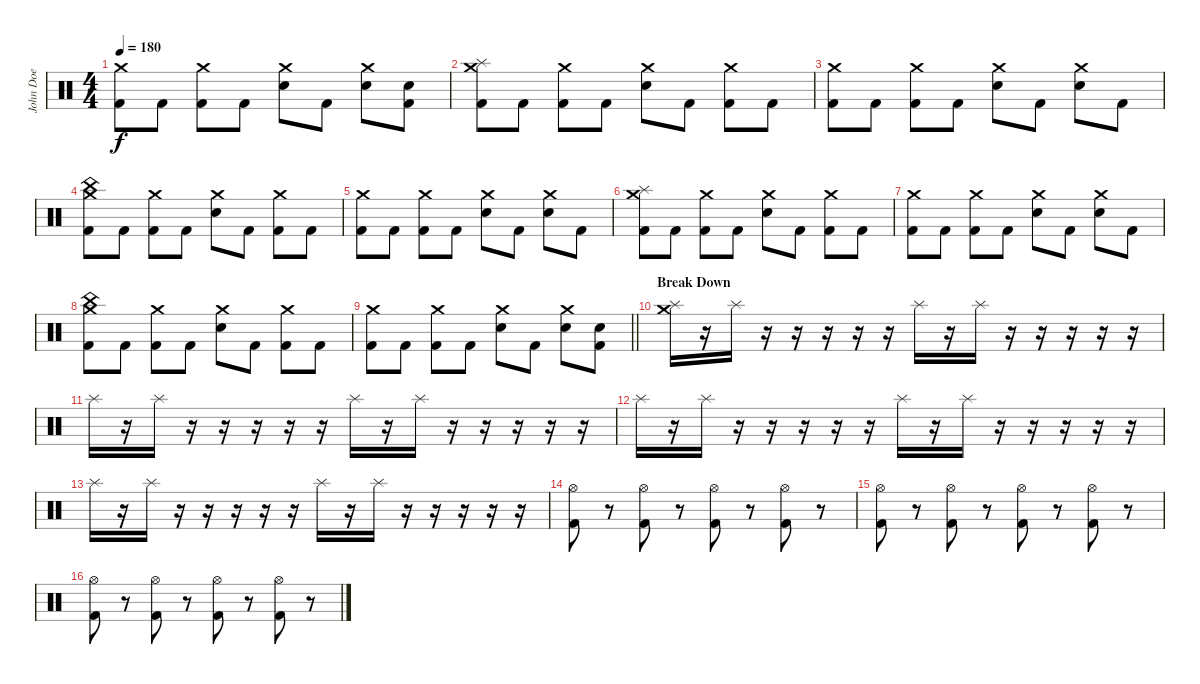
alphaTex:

\track ("John Doe" "John Doe") {instrument percussion}
\staff {score}
\articulation defaults
\ts (4 4)
\tempo 180
\clef neutral
\ks c
("Crash medium (hit)" "Kick (hit) 2").8{dy f} "Kick (hit) 2".8 ("Crash medium (hit)" "Kick (hit) 2").8 "Kick (hit) 2".8 ("Crash medium (hit)" "Electric Snare (hit)").8 "Kick (hit) 2".8 ("Crash medium (hit)" "Electric Snare (hit)").8 ("Electric Snare (hit)" "Kick (hit) 2").8 |
("Splash (hit)" "Crash medium (hit)" "Kick (hit) 2").8 "Kick (hit) 2".8 ("Crash medium (hit)" "Kick (hit) 2").8 "Kick (hit) 2".8 ("Crash medium (hit)" "Electric Snare (hit)").8 "Kick (hit) 2".8 ("Crash medium (hit)" "Kick (hit) 2").8 "Kick (hit) 2".8 |
("Crash medium (hit)" "Kick (hit) 2").8 "Kick (hit) 2".8 ("Crash medium (hit)" "Kick (hit) 2").8 "Kick (hit) 2".8 ("Crash medium (hit)" "Electric Snare (hit)").8 "Kick (hit) 2".8 ("Crash medium (hit)" "Electric Snare (hit)").8 "Kick (hit) 2".8 |
("China (hit)" "Crash medium (hit)" "Kick (hit) 2").8 "Kick (hit) 2".8 ("Crash medium (hit)" "Kick (hit) 2").8 "Kick (hit) 2".8 ("Crash medium (hit)" "Electric Snare (hit)").8 "Kick (hit) 2".8 ("Crash medium (hit)" "Kick (hit) 2").8 "Kick (hit) 2".8 |
("Crash medium (hit)" "Kick (hit) 2").8 "Kick (hit) 2".8 ("Crash medium (hit)" "Kick (hit) 2").8 "Kick (hit) 2".8 ("Crash medium (hit)" "Electric Snare (hit)").8 "Kick (hit) 2".8 ("Crash medium (hit)" "Electric Snare (hit)").8 "Kick (hit) 2".8 |
("Splash (hit)" "Crash medium (hit)" "Kick (hit) 2").8 "Kick (hit) 2".8 ("Crash medium (hit)" "Kick (hit) 2").8 "Kick (hit) 2".8 ("Crash medium (hit)" "Electric Snare (hit)").8 "Kick (hit) 2".8 ("Crash medium (hit)" "Kick (hit) 2").8 "Kick (hit) 2".8 |
("Crash medium (hit)" "Kick (hit) 2").8 "Kick (hit) 2".8 ("Crash medium (hit)" "Kick (hit) 2").8 "Kick (hit) 2".8 ("Crash medium (hit)" "Electric Snare (hit)").8 "Kick (hit) 2".8 ("Crash medium (hit)" "Electric Snare (hit)").8 "Kick (hit) 2".8 |
("China (hit)" "Crash medium (hit)" "Kick (hit) 2").8 "Kick (hit) 2".8 ("Crash medium (hit)" "Kick (hit) 2").8 "Kick (hit) 2".8 ("Crash medium (hit)" "Electric Snare (hit)").8 "Kick (hit) 2".8 ("Crash medium (hit)" "Kick (hit) 2").8 "Kick (hit) 2".8 |
\barLineRight lightlight
("Crash medium (hit)" "Kick (hit) 2").8 "Kick (hit) 2".8 ("Crash medium (hit)" "Kick (hit) 2").8 "Kick (hit) 2".8 ("Crash medium (hit)" "Electric Snare (hit)").8 "Kick (hit) 2".8 ("Crash medium (hit)" "Electric Snare (hit)").8 ("Electric Snare (hit)" "Kick (hit) 2").8 |
\section ("" "Break Down")
("Crash medium (hit)" "Splash (hit)").16 r.16 "Splash (hit)".16 r.16 r.16 r.16 r.16 r.16 "Splash (hit)".16 r.16 "Splash (hit)".16 r.16 r.16 r.16 r.16 r.16 |
"Splash (hit)".16 r.16 "Splash (hit)".16 r.16 r.16 r.16 r.16 r.16 "Splash (hit)".16 r.16 "Splash (hit)".16 r.16 r.16 r.16 r.16 r.16 |
"Splash (hit)".16 r.16 "Splash (hit)".16 r.16 r.16 r.16 r.16 r.16 "Splash (hit)".16 r.16 "Splash (hit)".16 r.16 r.16 r.16 r.16 r.16 |
"Splash (hit)".16 r.16 "Splash (hit)".16 r.16 r.16 r.16 r.16 r.16 "Splash (hit)".16 r.16 "Splash (hit)".16 r.16 r.16 r.16 r.16 r.16 |
("Hi-Hat (open)" "Kick (hit) 2").8 r.8 ("Hi-Hat (open)" "Kick (hit) 2").8 r.8 ("Hi-Hat (open)" "Kick (hit) 2").8 r.8 ("Hi-Hat (open)" "Kick (hit) 2").8 r.8 |
("Hi-Hat (open)" "Kick (hit) 2").8 r.8 ("Hi-Hat (open)" "Kick (hit) 2").8 r.8 ("Hi-Hat (open)" "Kick (hit) 2").8 r.8 ("Hi-Hat (open)" "Kick (hit) 2").8 r.8 |
("Hi-Hat (open)" "Kick (hit) 2").8 r.8 ("Hi-Hat (open)" "Kick (hit) 2").8 r.8 ("Hi-Hat (open)" "Kick (hit) 2").8 r.8 ("Hi-Hat (open)" "Kick (hit) 2").8 r.8
